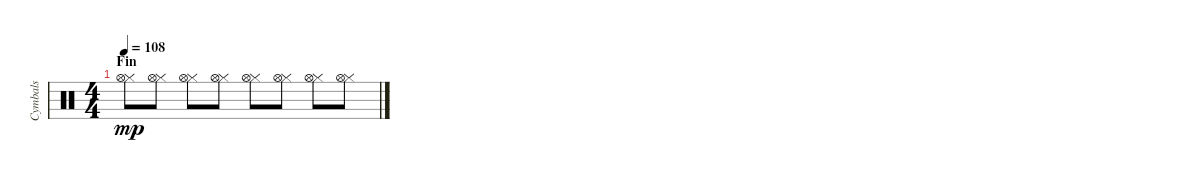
\track ("Cymbals" "Cymbals") {instrument percussion}
\staff {score}
\articulation defaults
\ts (4 4)
\section ("" "Fin")
\tempo 108
\clef neutral
\ks c
("Hi-Hat (closed)" "Hi-Hat (open)").8{dy mp} ("Hi-Hat (closed)" "Hi-Hat (open)").8 ("Hi-Hat (closed)" "Hi-Hat (open)").8 ("Hi-Hat (closed)" "Hi-Hat (open)").8 ("Hi-Hat (closed)" "Hi-Hat (open)").8 ("Hi-Hat (closed)" "Hi-Hat (open)").8 ("Hi-Hat (closed)" "Hi-Hat (open)").8 ("Hi-Hat (closed)" "Hi-Hat (open)").8
